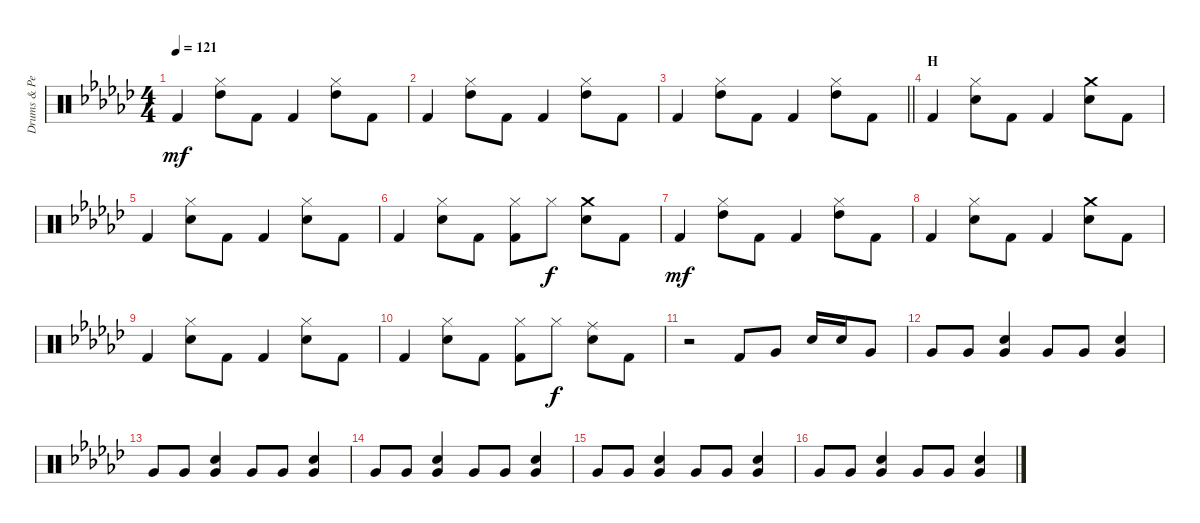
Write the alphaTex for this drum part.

\track ("Drums & Percussion" "Drums & Pe") {instrument percussion bank 98}
\staff {score}
\articulation defaults
\ts (4 4)
\tempo 121
\clef neutral
\ks ebminor "Kick (hit) 2".4{dy mf}
("Hi-Hat (closed)" "High Tom (hit)").8 "Kick (hit) 2".8 "Kick (hit) 2".4 ("Hi-Hat (closed)" "High Tom (hit)").8 "Kick (hit) 2".8 |
"Kick (hit) 2".4 ("Hi-Hat (closed)" "High Tom (hit)").8 "Kick (hit) 2".8 "Kick (hit) 2".4 ("Hi-Hat (closed)" "High Tom (hit)").8 "Kick (hit) 2".8 |
\barLineRight lightlight "Kick (hit) 2".4
("Hi-Hat (closed)" "High Tom (hit)").8 "Kick (hit) 2".8 "Kick (hit) 2".4 ("Hi-Hat (closed)" "High Tom (hit)").8 "Kick (hit) 2".8 |
\section ("" "H")
"Kick (hit) 2".4 ("Hi-Hat (closed)" "Snare (hit) 2").8 "Kick (hit) 2".8 "Kick (hit) 2".4 ("Crash medium (hit)" "Snare (hit) 2").8 "Kick (hit) 2".8 |
"Kick (hit) 2".4 ("Hi-Hat (closed)" "Snare (hit) 2").8 "Kick (hit) 2".8 "Kick (hit) 2".4 ("Hi-Hat (closed)" "Snare (hit) 2").8 "Kick (hit) 2".8 |
"Kick (hit) 2".4 ("Hi-Hat (closed)" "Snare (hit) 2").8 "Kick (hit) 2".8 ("Hi-Hat (closed)" "Kick (hit) 2").8 "Hi-Hat (closed)".8{dy f} ("Crash medium (hit)" "Snare (hit) 2").8 "Kick (hit) 2".8 |
"Kick (hit) 2".4{dy mf} ("Hi-Hat (closed)" "High Tom (hit)").8 "Kick (hit) 2".8 "Kick (hit) 2".4 ("Hi-Hat (closed)" "High Tom (hit)").8 "Kick (hit) 2".8 |
"Kick (hit) 2".4 ("Hi-Hat (closed)" "Snare (hit) 2").8 "Kick (hit) 2".8 "Kick (hit) 2".4 ("Crash medium (hit)" "Snare (hit) 2").8 "Kick (hit) 2".8 |
"Kick (hit) 2".4 ("Hi-Hat (closed)" "Snare (hit) 2").8 "Kick (hit) 2".8 "Kick (hit) 2".4 ("Hi-Hat (closed)" "Snare (hit) 2").8 "Kick (hit) 2".8 |
"Kick (hit) 2".4 ("Hi-Hat (closed)" "Snare (hit) 2").8 "Kick (hit) 2".8 ("Hi-Hat (closed)" "Kick (hit) 2").8 "Hi-Hat (closed)".8{dy f} ("Ride (middle)" "Snare (hit) 2").8 "Kick (hit) 2".8 |
r.2 "Kick (hit) 2".8 "Very Low Tom (hit)".8 "Snare (hit) 2".16 "Snare (hit) 2".16 "Very Low Tom (hit)".8 |
"Very Low Tom (hit)".8 "Very Low Tom (hit)".8 ("Snare (hit) 2" "Very Low Tom (hit)").4 "Very Low Tom (hit)".8 "Very Low Tom (hit)".8 ("Snare (hit) 2" "Very Low Tom (hit)").4 |
"Very Low Tom (hit)".8 "Very Low Tom (hit)".8 ("Snare (hit) 2" "Very Low Tom (hit)").4 "Very Low Tom (hit)".8 "Very Low Tom (hit)".8 ("Snare (hit) 2" "Very Low Tom (hit)").4 |
"Very Low Tom (hit)".8 "Very Low Tom (hit)".8 ("Snare (hit) 2" "Very Low Tom (hit)").4 "Very Low Tom (hit)".8 "Very Low Tom (hit)".8 ("Snare (hit) 2" "Very Low Tom (hit)").4 |
"Very Low Tom (hit)".8 "Very Low Tom (hit)".8 ("Snare (hit) 2" "Very Low Tom (hit)").4 "Very Low Tom (hit)".8 "Very Low Tom (hit)".8 ("Snare (hit) 2" "Very Low Tom (hit)").4 |
"Very Low Tom (hit)".8 "Very Low Tom (hit)".8 ("Snare (hit) 2" "Very Low Tom (hit)").4 "Very Low Tom (hit)".8 "Very Low Tom (hit)".8 ("Snare (hit) 2" "Very Low Tom (hit)").4
